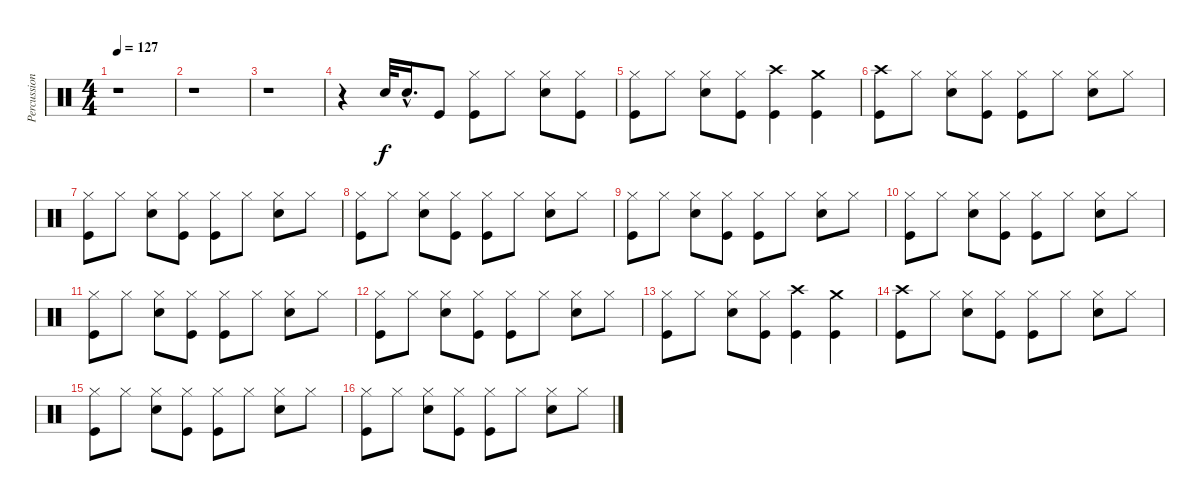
\track ("Percussions" "Percussion") {instrument percussion}
\staff {score}
\articulation defaults
\ts (4 4)
\tempo 127
\clef neutral
\ks c
r.1{dy f} |
r.1 |
r.1 |
r.4 "Snare (hit) 2".32 "Snare (hit) 2"{hac}.16{d} "Kick (hit)".8 ("Hi-Hat (closed)" "Kick (hit)").8 "Hi-Hat (closed)".8 ("Hi-Hat (closed)" "Snare (hit) 2").8 ("Hi-Hat (closed)" "Kick (hit)").8 |
("Hi-Hat (closed)" "Kick (hit)").8 "Hi-Hat (closed)".8 ("Hi-Hat (closed)" "Snare (hit) 2").8 ("Hi-Hat (closed)" "Kick (hit)").8 ("Crash high (hit)" "Kick (hit)").4 ("Crash medium (hit)" "Kick (hit)").4 |
("Crash high (hit)" "Kick (hit)").8 "Hi-Hat (closed)".8 ("Hi-Hat (closed)" "Snare (hit) 2").8 ("Hi-Hat (closed)" "Kick (hit)").8 ("Hi-Hat (closed)" "Kick (hit)").8 "Hi-Hat (closed)".8 ("Hi-Hat (closed)" "Snare (hit) 2").8 "Hi-Hat (closed)".8 |
("Hi-Hat (closed)" "Kick (hit)").8 "Hi-Hat (closed)".8 ("Hi-Hat (closed)" "Snare (hit) 2").8 ("Hi-Hat (closed)" "Kick (hit)").8 ("Hi-Hat (closed)" "Kick (hit)").8 "Hi-Hat (closed)".8 ("Hi-Hat (closed)" "Snare (hit) 2").8 "Hi-Hat (closed)".8 |
("Hi-Hat (closed)" "Kick (hit)").8 "Hi-Hat (closed)".8 ("Hi-Hat (closed)" "Snare (hit) 2").8 ("Hi-Hat (closed)" "Kick (hit)").8 ("Hi-Hat (closed)" "Kick (hit)").8 "Hi-Hat (closed)".8 ("Hi-Hat (closed)" "Snare (hit) 2").8 "Hi-Hat (closed)".8 |
("Hi-Hat (closed)" "Kick (hit)").8 "Hi-Hat (closed)".8 ("Hi-Hat (closed)" "Snare (hit) 2").8 ("Hi-Hat (closed)" "Kick (hit)").8 ("Hi-Hat (closed)" "Kick (hit)").8 "Hi-Hat (closed)".8 ("Hi-Hat (closed)" "Snare (hit) 2").8 "Hi-Hat (closed)".8 |
("Hi-Hat (closed)" "Kick (hit)").8 "Hi-Hat (closed)".8 ("Hi-Hat (closed)" "Snare (hit) 2").8 ("Hi-Hat (closed)" "Kick (hit)").8 ("Hi-Hat (closed)" "Kick (hit)").8 "Hi-Hat (closed)".8 ("Hi-Hat (closed)" "Snare (hit) 2").8 "Hi-Hat (closed)".8 |
("Hi-Hat (closed)" "Kick (hit)").8 "Hi-Hat (closed)".8 ("Hi-Hat (closed)" "Snare (hit) 2").8 ("Hi-Hat (closed)" "Kick (hit)").8 ("Hi-Hat (closed)" "Kick (hit)").8 "Hi-Hat (closed)".8 ("Hi-Hat (closed)" "Snare (hit) 2").8 "Hi-Hat (closed)".8 |
("Hi-Hat (closed)" "Kick (hit)").8 "Hi-Hat (closed)".8 ("Hi-Hat (closed)" "Snare (hit) 2").8 ("Hi-Hat (closed)" "Kick (hit)").8 ("Hi-Hat (closed)" "Kick (hit)").8 "Hi-Hat (closed)".8 ("Hi-Hat (closed)" "Snare (hit) 2").8 "Hi-Hat (closed)".8 |
("Hi-Hat (closed)" "Kick (hit)").8 "Hi-Hat (closed)".8 ("Hi-Hat (closed)" "Snare (hit) 2").8 ("Hi-Hat (closed)" "Kick (hit)").8 ("Crash high (hit)" "Kick (hit)").4 ("Crash medium (hit)" "Kick (hit)").4 |
("Crash high (hit)" "Kick (hit)").8 "Hi-Hat (closed)".8 ("Hi-Hat (closed)" "Snare (hit) 2").8 ("Hi-Hat (closed)" "Kick (hit)").8 ("Hi-Hat (closed)" "Kick (hit)").8 "Hi-Hat (closed)".8 ("Hi-Hat (closed)" "Snare (hit) 2").8 "Hi-Hat (closed)".8 |
("Hi-Hat (closed)" "Kick (hit)").8 "Hi-Hat (closed)".8 ("Hi-Hat (closed)" "Snare (hit) 2").8 ("Hi-Hat (closed)" "Kick (hit)").8 ("Hi-Hat (closed)" "Kick (hit)").8 "Hi-Hat (closed)".8 ("Hi-Hat (closed)" "Snare (hit) 2").8 "Hi-Hat (closed)".8 |
("Hi-Hat (closed)" "Kick (hit)").8 "Hi-Hat (closed)".8 ("Hi-Hat (closed)" "Snare (hit) 2").8 ("Hi-Hat (closed)" "Kick (hit)").8 ("Hi-Hat (closed)" "Kick (hit)").8 "Hi-Hat (closed)".8 ("Hi-Hat (closed)" "Snare (hit) 2").8 "Hi-Hat (closed)".8
